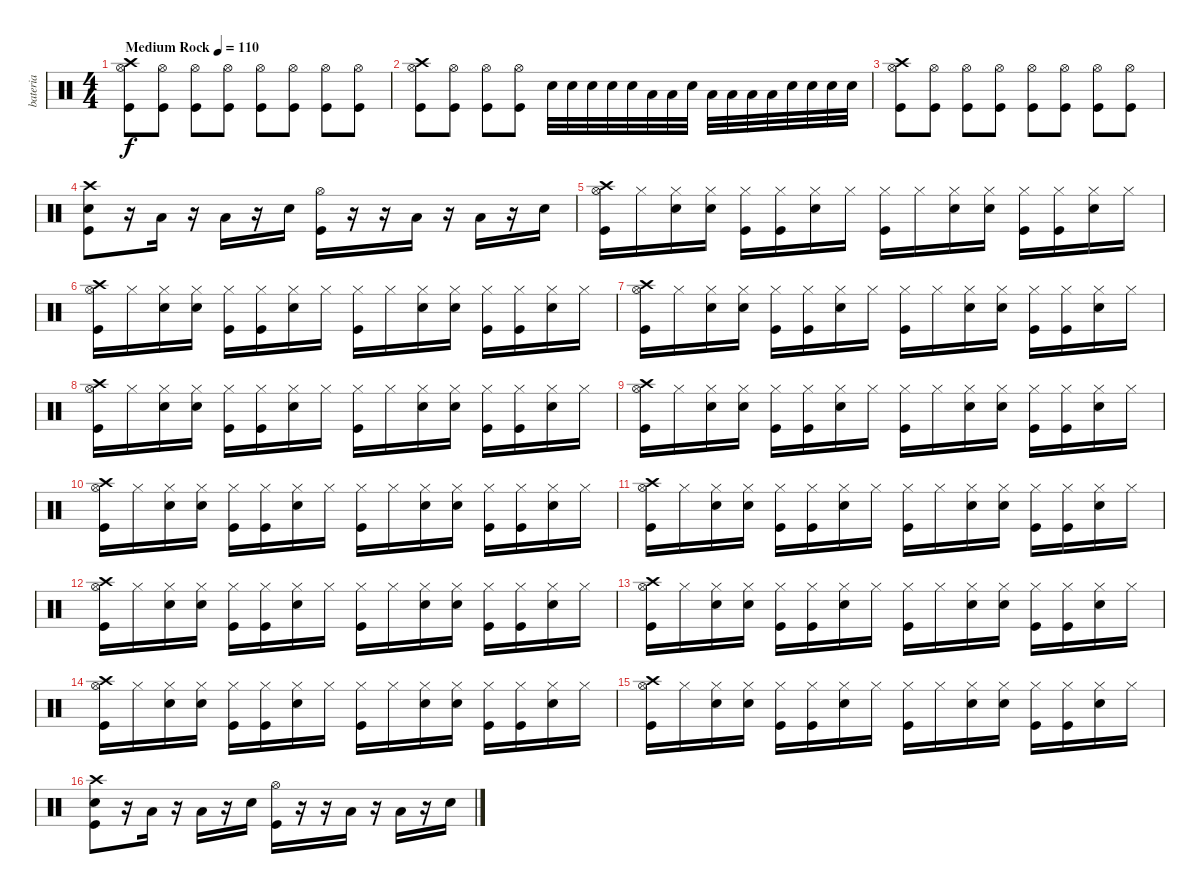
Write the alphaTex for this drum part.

\track ("bateria" "bateria") {instrument percussion}
\staff {score}
\articulation defaults
\ts (4 4)
\tempo (110 "Medium Rock")
\clef neutral
\ks c
("Crash high (hit)" "Hi-Hat (open)" "Kick (hit)").8{dy f} ("Hi-Hat (open)" "Kick (hit)").8 ("Hi-Hat (open)" "Kick (hit)").8 ("Hi-Hat (open)" "Kick (hit)").8 ("Hi-Hat (open)" "Kick (hit)").8 ("Hi-Hat (open)" "Kick (hit)").8 ("Hi-Hat (open)" "Kick (hit)").8 ("Hi-Hat (open)" "Kick (hit)").8 |
("Crash high (hit)" "Hi-Hat (open)" "Kick (hit)").8 ("Hi-Hat (open)" "Kick (hit)").8 ("Hi-Hat (open)" "Kick (hit)").8 ("Hi-Hat (open)" "Kick (hit)").8 "Snare (hit) 2".32 "Snare (hit) 2".32 "Snare (hit) 2".32 "Snare (hit) 2".32 "Snare (hit) 2".32 "Low Floor Tom (hit)".32 "Low Floor Tom (hit)".32 "Snare (hit) 2".32 "Low Floor Tom (hit)".32 "Low Floor Tom (hit)".32 "Low Floor Tom (hit)".32 "Low Floor Tom (hit)".32 "Snare (hit) 2".32 "Snare (hit) 2".32 "Snare (hit) 2".32 "Snare (hit) 2".32 |
("Crash high (hit)" "Hi-Hat (open)" "Kick (hit)").8 ("Hi-Hat (open)" "Kick (hit)").8 ("Hi-Hat (open)" "Kick (hit)").8 ("Hi-Hat (open)" "Kick (hit)").8 ("Hi-Hat (open)" "Kick (hit)").8 ("Hi-Hat (open)" "Kick (hit)").8 ("Hi-Hat (open)" "Kick (hit)").8 ("Hi-Hat (open)" "Kick (hit)").8 |
("Crash high (hit)" "Snare (hit) 2" "Kick (hit)").8 r.16 "Low Floor Tom (hit)".16 r.16 "Low Floor Tom (hit)".16 r.16 "Snare (hit) 2".16 ("Hi-Hat (open)" "Kick (hit)").16 r.16 r.16 "Low Floor Tom (hit)".16 r.16 "Low Floor Tom (hit)".16 r.16 "Snare (hit) 2".16 |
("Crash high (hit)" "Hi-Hat (open)" "Kick (hit)").16 "Hi-Hat (closed)".16 ("Hi-Hat (closed)" "Snare (hit) 2").16 ("Hi-Hat (closed)" "Snare (hit) 2").16 ("Hi-Hat (closed)" "Kick (hit)").16 ("Hi-Hat (closed)" "Kick (hit)").16 ("Hi-Hat (closed)" "Snare (hit) 2").16 "Hi-Hat (closed)".16 ("Hi-Hat (closed)" "Kick (hit)").16 "Hi-Hat (closed)".16 ("Hi-Hat (closed)" "Snare (hit) 2").16 ("Hi-Hat (closed)" "Snare (hit) 2").16 ("Hi-Hat (closed)" "Kick (hit)").16 ("Hi-Hat (closed)" "Kick (hit)").16 ("Hi-Hat (closed)" "Snare (hit) 2").16 "Hi-Hat (closed)".16 |
("Crash high (hit)" "Hi-Hat (open)" "Kick (hit)").16 "Hi-Hat (closed)".16 ("Hi-Hat (closed)" "Snare (hit) 2").16 ("Hi-Hat (closed)" "Snare (hit) 2").16 ("Hi-Hat (closed)" "Kick (hit)").16 ("Hi-Hat (closed)" "Kick (hit)").16 ("Hi-Hat (closed)" "Snare (hit) 2").16 "Hi-Hat (closed)".16 ("Hi-Hat (closed)" "Kick (hit)").16 "Hi-Hat (closed)".16 ("Hi-Hat (closed)" "Snare (hit) 2").16 ("Hi-Hat (closed)" "Snare (hit) 2").16 ("Hi-Hat (closed)" "Kick (hit)").16 ("Hi-Hat (closed)" "Kick (hit)").16 ("Hi-Hat (closed)" "Snare (hit) 2").16 "Hi-Hat (closed)".16 |
("Crash high (hit)" "Hi-Hat (open)" "Kick (hit)").16 "Hi-Hat (closed)".16 ("Hi-Hat (closed)" "Snare (hit) 2").16 ("Hi-Hat (closed)" "Snare (hit) 2").16 ("Hi-Hat (closed)" "Kick (hit)").16 ("Hi-Hat (closed)" "Kick (hit)").16 ("Hi-Hat (closed)" "Snare (hit) 2").16 "Hi-Hat (closed)".16 ("Hi-Hat (closed)" "Kick (hit)").16 "Hi-Hat (closed)".16 ("Hi-Hat (closed)" "Snare (hit) 2").16 ("Hi-Hat (closed)" "Snare (hit) 2").16 ("Hi-Hat (closed)" "Kick (hit)").16 ("Hi-Hat (closed)" "Kick (hit)").16 ("Hi-Hat (closed)" "Snare (hit) 2").16 "Hi-Hat (closed)".16 |
("Crash high (hit)" "Hi-Hat (open)" "Kick (hit)").16 "Hi-Hat (closed)".16 ("Hi-Hat (closed)" "Snare (hit) 2").16 ("Hi-Hat (closed)" "Snare (hit) 2").16 ("Hi-Hat (closed)" "Kick (hit)").16 ("Hi-Hat (closed)" "Kick (hit)").16 ("Hi-Hat (closed)" "Snare (hit) 2").16 "Hi-Hat (closed)".16 ("Hi-Hat (closed)" "Kick (hit)").16 "Hi-Hat (closed)".16 ("Hi-Hat (closed)" "Snare (hit) 2").16 ("Hi-Hat (closed)" "Snare (hit) 2").16 ("Hi-Hat (closed)" "Kick (hit)").16 ("Hi-Hat (closed)" "Kick (hit)").16 ("Hi-Hat (closed)" "Snare (hit) 2").16 "Hi-Hat (closed)".16 |
("Crash high (hit)" "Hi-Hat (open)" "Kick (hit)").16 "Hi-Hat (closed)".16 ("Hi-Hat (closed)" "Snare (hit) 2").16 ("Hi-Hat (closed)" "Snare (hit) 2").16 ("Hi-Hat (closed)" "Kick (hit)").16 ("Hi-Hat (closed)" "Kick (hit)").16 ("Hi-Hat (closed)" "Snare (hit) 2").16 "Hi-Hat (closed)".16 ("Hi-Hat (closed)" "Kick (hit)").16 "Hi-Hat (closed)".16 ("Hi-Hat (closed)" "Snare (hit) 2").16 ("Hi-Hat (closed)" "Snare (hit) 2").16 ("Hi-Hat (closed)" "Kick (hit)").16 ("Hi-Hat (closed)" "Kick (hit)").16 ("Hi-Hat (closed)" "Snare (hit) 2").16 "Hi-Hat (closed)".16 |
("Crash high (hit)" "Hi-Hat (open)" "Kick (hit)").16 "Hi-Hat (closed)".16 ("Hi-Hat (closed)" "Snare (hit) 2").16 ("Hi-Hat (closed)" "Snare (hit) 2").16 ("Hi-Hat (closed)" "Kick (hit)").16 ("Hi-Hat (closed)" "Kick (hit)").16 ("Hi-Hat (closed)" "Snare (hit) 2").16 "Hi-Hat (closed)".16 ("Hi-Hat (closed)" "Kick (hit)").16 "Hi-Hat (closed)".16 ("Hi-Hat (closed)" "Snare (hit) 2").16 ("Hi-Hat (closed)" "Snare (hit) 2").16 ("Hi-Hat (closed)" "Kick (hit)").16 ("Hi-Hat (closed)" "Kick (hit)").16 ("Hi-Hat (closed)" "Snare (hit) 2").16 "Hi-Hat (closed)".16 |
("Crash high (hit)" "Hi-Hat (open)" "Kick (hit)").16 "Hi-Hat (closed)".16 ("Hi-Hat (closed)" "Snare (hit) 2").16 ("Hi-Hat (closed)" "Snare (hit) 2").16 ("Hi-Hat (closed)" "Kick (hit)").16 ("Hi-Hat (closed)" "Kick (hit)").16 ("Hi-Hat (closed)" "Snare (hit) 2").16 "Hi-Hat (closed)".16 ("Hi-Hat (closed)" "Kick (hit)").16 "Hi-Hat (closed)".16 ("Hi-Hat (closed)" "Snare (hit) 2").16 ("Hi-Hat (closed)" "Snare (hit) 2").16 ("Hi-Hat (closed)" "Kick (hit)").16 ("Hi-Hat (closed)" "Kick (hit)").16 ("Hi-Hat (closed)" "Snare (hit) 2").16 "Hi-Hat (closed)".16 |
("Crash high (hit)" "Hi-Hat (open)" "Kick (hit)").16 "Hi-Hat (closed)".16 ("Hi-Hat (closed)" "Snare (hit) 2").16 ("Hi-Hat (closed)" "Snare (hit) 2").16 ("Hi-Hat (closed)" "Kick (hit)").16 ("Hi-Hat (closed)" "Kick (hit)").16 ("Hi-Hat (closed)" "Snare (hit) 2").16 "Hi-Hat (closed)".16 ("Hi-Hat (closed)" "Kick (hit)").16 "Hi-Hat (closed)".16 ("Hi-Hat (closed)" "Snare (hit) 2").16 ("Hi-Hat (closed)" "Snare (hit) 2").16 ("Hi-Hat (closed)" "Kick (hit)").16 ("Hi-Hat (closed)" "Kick (hit)").16 ("Hi-Hat (closed)" "Snare (hit) 2").16 "Hi-Hat (closed)".16 |
("Crash high (hit)" "Hi-Hat (open)" "Kick (hit)").16 "Hi-Hat (closed)".16 ("Hi-Hat (closed)" "Snare (hit) 2").16 ("Hi-Hat (closed)" "Snare (hit) 2").16 ("Hi-Hat (closed)" "Kick (hit)").16 ("Hi-Hat (closed)" "Kick (hit)").16 ("Hi-Hat (closed)" "Snare (hit) 2").16 "Hi-Hat (closed)".16 ("Hi-Hat (closed)" "Kick (hit)").16 "Hi-Hat (closed)".16 ("Hi-Hat (closed)" "Snare (hit) 2").16 ("Hi-Hat (closed)" "Snare (hit) 2").16 ("Hi-Hat (closed)" "Kick (hit)").16 ("Hi-Hat (closed)" "Kick (hit)").16 ("Hi-Hat (closed)" "Snare (hit) 2").16 "Hi-Hat (closed)".16 |
("Crash high (hit)" "Hi-Hat (open)" "Kick (hit)").16 "Hi-Hat (closed)".16 ("Hi-Hat (closed)" "Snare (hit) 2").16 ("Hi-Hat (closed)" "Snare (hit) 2").16 ("Hi-Hat (closed)" "Kick (hit)").16 ("Hi-Hat (closed)" "Kick (hit)").16 ("Hi-Hat (closed)" "Snare (hit) 2").16 "Hi-Hat (closed)".16 ("Hi-Hat (closed)" "Kick (hit)").16 "Hi-Hat (closed)".16 ("Hi-Hat (closed)" "Snare (hit) 2").16 ("Hi-Hat (closed)" "Snare (hit) 2").16 ("Hi-Hat (closed)" "Kick (hit)").16 ("Hi-Hat (closed)" "Kick (hit)").16 ("Hi-Hat (closed)" "Snare (hit) 2").16 "Hi-Hat (closed)".16 |
("Crash high (hit)" "Hi-Hat (open)" "Kick (hit)").16 "Hi-Hat (closed)".16 ("Hi-Hat (closed)" "Snare (hit) 2").16 ("Hi-Hat (closed)" "Snare (hit) 2").16 ("Hi-Hat (closed)" "Kick (hit)").16 ("Hi-Hat (closed)" "Kick (hit)").16 ("Hi-Hat (closed)" "Snare (hit) 2").16 "Hi-Hat (closed)".16 ("Hi-Hat (closed)" "Kick (hit)").16 "Hi-Hat (closed)".16 ("Hi-Hat (closed)" "Snare (hit) 2").16 ("Hi-Hat (closed)" "Snare (hit) 2").16 ("Hi-Hat (closed)" "Kick (hit)").16 ("Hi-Hat (closed)" "Kick (hit)").16 ("Hi-Hat (closed)" "Snare (hit) 2").16 "Hi-Hat (closed)".16 |
("Crash high (hit)" "Snare (hit) 2" "Kick (hit)").8 r.16 "Low Floor Tom (hit)".16 r.16 "Low Floor Tom (hit)".16 r.16 "Snare (hit) 2".16 ("Hi-Hat (open)" "Kick (hit)").16 r.16 r.16 "Low Floor Tom (hit)".16 r.16 "Low Floor Tom (hit)".16 r.16 "Snare (hit) 2".16
